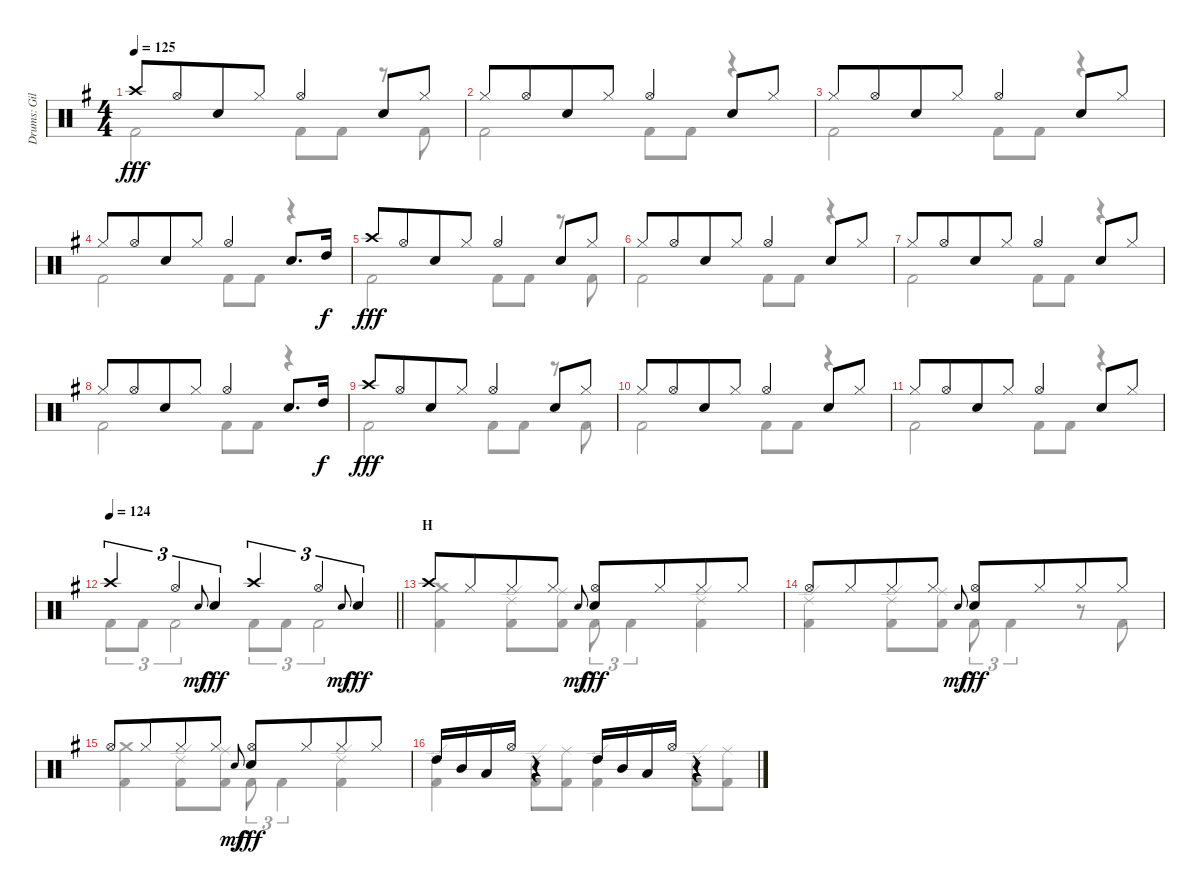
\track ("Drums: Gil" "Drums: Gil") {instrument percussion}
\staff {score}
\articulation defaults
\voice
\ts (4 4)
\tempo 125
\clef neutral
\ks g "Crash high (hit)".8{dy fff} "Hi-Hat (open)".8{beam merge} "Snare (hit) 2".8 "Hi-Hat (closed)".8 "Hi-Hat (open)".4 "Snare (hit) 2".8 "Hi-Hat (closed)".8
|
"Hi-Hat (closed)".8 "Hi-Hat (open)".8{beam merge} "Snare (hit) 2".8 "Hi-Hat (closed)".8 "Hi-Hat (open)".4 "Snare (hit) 2".8 "Hi-Hat (closed)".8 |
"Hi-Hat (closed)".8 "Hi-Hat (open)".8{beam merge} "Snare (hit) 2".8 "Hi-Hat (closed)".8 "Hi-Hat (open)".4 "Snare (hit) 2".8 "Hi-Hat (closed)".8 |
"Hi-Hat (closed)".8 "Hi-Hat (open)".8{beam merge} "Snare (hit) 2".8 "Hi-Hat (closed)".8 "Hi-Hat (open)".4 "Snare (hit) 2".8{d} "High Tom (hit)".16{dy f} |
"Crash high (hit)".8{dy fff} "Hi-Hat (open)".8{beam merge} "Snare (hit) 2".8 "Hi-Hat (closed)".8 "Hi-Hat (open)".4 "Snare (hit) 2".8 "Hi-Hat (closed)".8 |
"Hi-Hat (closed)".8 "Hi-Hat (open)".8{beam merge} "Snare (hit) 2".8 "Hi-Hat (closed)".8 "Hi-Hat (open)".4 "Snare (hit) 2".8 "Hi-Hat (closed)".8 |
"Hi-Hat (closed)".8 "Hi-Hat (open)".8{beam merge} "Snare (hit) 2".8 "Hi-Hat (closed)".8 "Hi-Hat (open)".4 "Snare (hit) 2".8 "Hi-Hat (closed)".8 |
"Hi-Hat (closed)".8 "Hi-Hat (open)".8{beam merge} "Snare (hit) 2".8 "Hi-Hat (closed)".8 "Hi-Hat (open)".4 "Snare (hit) 2".8{d} "High Tom (hit)".16{dy f} |
"Crash high (hit)".8{dy fff} "Hi-Hat (open)".8{beam merge} "Snare (hit) 2".8 "Hi-Hat (closed)".8 "Hi-Hat (open)".4 "Snare (hit) 2".8 "Hi-Hat (closed)".8 |
"Hi-Hat (closed)".8 "Hi-Hat (open)".8{beam merge} "Snare (hit) 2".8 "Hi-Hat (closed)".8 "Hi-Hat (open)".4 "Snare (hit) 2".8 "Hi-Hat (closed)".8 |
"Hi-Hat (closed)".8 "Hi-Hat (open)".8{beam merge} "Snare (hit) 2".8 "Hi-Hat (closed)".8 "Hi-Hat (open)".4 "Snare (hit) 2".8 "Hi-Hat (closed)".8 |
\tempo 124
\barLineRight lightlight "Crash high (hit)".4{tu (3 2)} "Hi-Hat (open)".4{tu (3 2)} "Electric Snare (hit)".8{gr onbeat dy mf} "Snare (hit) 2".4{tu (3 2) dy fff} "Crash high (hit)".4{tu (3 2)} "Hi-Hat (open)".4{tu (3 2)} "Electric Snare (hit)".8{gr onbeat dy mf} "Snare (hit) 2".4{tu (3 2) dy fff}
|
\section ("" "H")
"Crash high (hit)".8 "Hi-Hat (closed)".8{beam merge} "Hi-Hat (closed)".8 "Hi-Hat (closed)".8 "Electric Snare (hit)".8{gr onbeat dy mf} ("Hi-Hat (open)" "Snare (hit) 2").8{dy fff} "Hi-Hat (closed)".8{beam merge} "Hi-Hat (closed)".8 "Hi-Hat (closed)".8 |
"Hi-Hat (open)".8 "Hi-Hat (closed)".8{beam merge} "Hi-Hat (closed)".8 "Hi-Hat (closed)".8 "Electric Snare (hit)".8{gr onbeat dy mf} ("Hi-Hat (open)" "Snare (hit) 2").8{dy fff} "Hi-Hat (closed)".8{beam merge} "Hi-Hat (closed)".8 "Hi-Hat (closed)".8 |
"Hi-Hat (open)".8 "Hi-Hat (closed)".8{beam merge} "Hi-Hat (closed)".8 "Hi-Hat (closed)".8 "Electric Snare (hit)".8{gr onbeat dy mf} ("Hi-Hat (open)" "Snare (hit) 2").8{dy fff} "Hi-Hat (closed)".8{beam merge} "Hi-Hat (closed)".8 "Hi-Hat (closed)".8 |
"High Tom (hit)".16 "Mid Tom (hit)".16 "Low Tom (hit)".16 "Hi-Hat (open)".16 r.4 "High Tom (hit)".16 "Mid Tom (hit)".16 "Low Tom (hit)".16 "Hi-Hat (open)".16 r.4
\voice
\clef neutral
\ottava regular
\simile none
\ks g "Kick (hit) 2".2{dy fff} "Kick (hit) 2".8 "Kick (hit) 2".8
r.8 "Kick (hit) 2".8 |
"Kick (hit) 2".2 "Kick (hit) 2".8 "Kick (hit) 2".8 r.4 |
"Kick (hit) 2".2 "Kick (hit) 2".8 "Kick (hit) 2".8 r.4 |
"Kick (hit) 2".2 "Kick (hit) 2".8 "Kick (hit) 2".8 r.4 |
"Kick (hit) 2".2 "Kick (hit) 2".8 "Kick (hit) 2".8 r.8 "Kick (hit) 2".8 |
"Kick (hit) 2".2 "Kick (hit) 2".8 "Kick (hit) 2".8 r.4 |
"Kick (hit) 2".2 "Kick (hit) 2".8 "Kick (hit) 2".8 r.4 |
"Kick (hit) 2".2 "Kick (hit) 2".8 "Kick (hit) 2".8 r.4 |
"Kick (hit) 2".2 "Kick (hit) 2".8 "Kick (hit) 2".8 r.8 "Kick (hit) 2".8 |
"Kick (hit) 2".2 "Kick (hit) 2".8 "Kick (hit) 2".8 r.4 |
"Kick (hit) 2".2 "Kick (hit) 2".8 "Kick (hit) 2".8 r.4 |
\barLineRight lightlight "Kick (hit) 2".8{tu (3 2)} "Kick (hit) 2".8{tu (3 2)} "Kick (hit) 2".2{tu (3 2)} "Kick (hit) 2".8{tu (3 2)} "Kick (hit) 2".8{tu (3 2)} "Kick (hit) 2".2{tu (3 2)}
|
("Crash medium (hit)" "Kick (hit) 2").4 ("Ride (edge) 2" "Kick (hit) 2").8 ("Ride (middle)" "Kick (hit) 2").8 "Kick (hit) 2".8{tu (3 2)} "Kick (hit) 2".4{tu (3 2)} ("Ride (edge) 2" "Kick (hit) 2").4 |
("Ride (edge) 2" "Kick (hit) 2").4 ("Ride (edge) 2" "Kick (hit) 2").8 ("Ride (middle)" "Kick (hit) 2").8 "Kick (hit) 2".8{tu (3 2)} "Kick (hit) 2".4{tu (3 2)} r.8 "Kick (hit) 2".8 |
("Crash medium (hit)" "Kick (hit) 2").4 ("Ride (edge) 2" "Kick (hit) 2").8 ("Ride (middle)" "Kick (hit) 2").8 "Kick (hit) 2".8{tu (3 2)} "Kick (hit) 2".4{tu (3 2)} ("Ride (edge) 2" "Kick (hit) 2").4 |
("Ride (edge) 2" "Kick (hit) 2").4 ("Ride (edge) 2" "Kick (hit) 2").8 ("Ride (middle)" "Kick (hit) 2").8 ("Ride (edge) 2" "Kick (hit) 2").4 ("Ride (edge) 2" "Kick (hit) 2").8 ("Ride (middle)" "Kick (hit) 2").8
